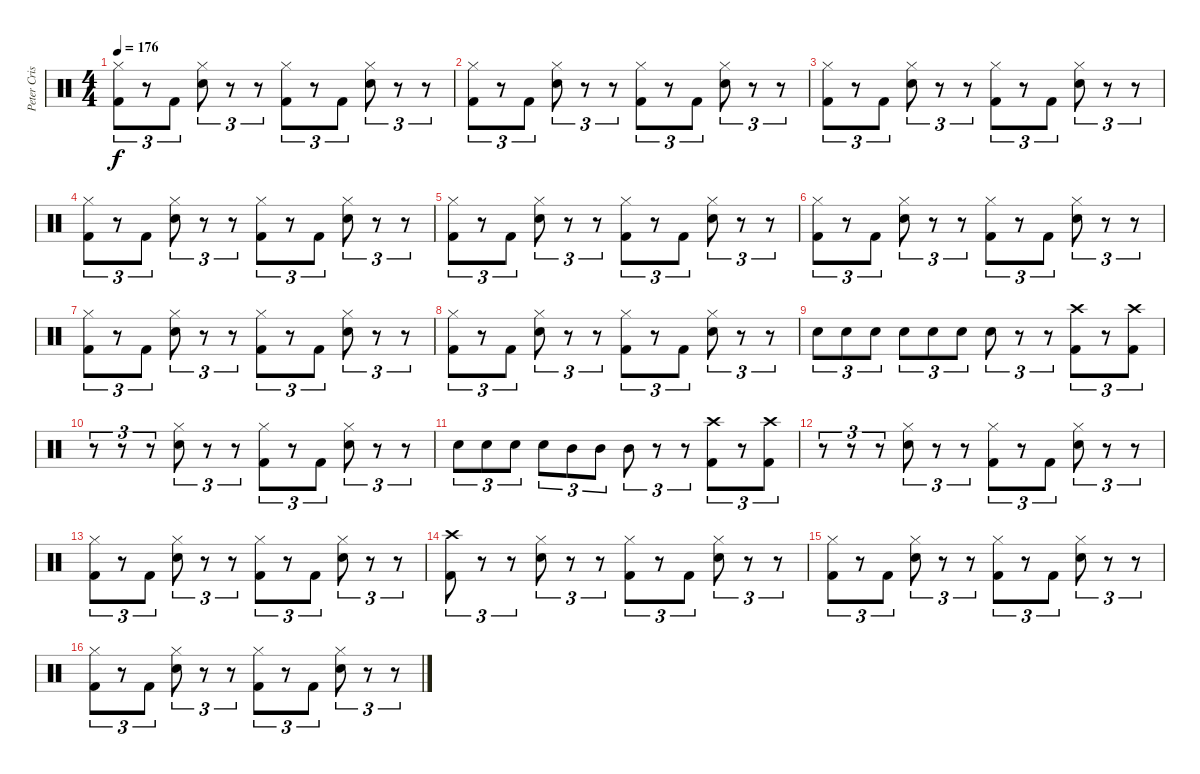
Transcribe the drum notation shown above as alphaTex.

\track ("Peter Criss" "Peter Cris") {instrument percussion}
\staff {score}
\articulation defaults
\ts (4 4)
\tempo 176
\clef neutral
\ks c
("Hi-Hat (closed)" "Kick (hit) 2").8{tu (3 2) dy f} r.8{tu (3 2)} "Kick (hit) 2".8{tu (3 2)} ("Hi-Hat (closed)" "Electric Snare (hit)").8{tu (3 2)} r.8{tu (3 2)} r.8{tu (3 2)} ("Hi-Hat (closed)" "Kick (hit) 2").8{tu (3 2)} r.8{tu (3 2)} "Kick (hit) 2".8{tu (3 2)} ("Hi-Hat (closed)" "Electric Snare (hit)").8{tu (3 2)} r.8{tu (3 2)} r.8{tu (3 2)} |
("Hi-Hat (closed)" "Kick (hit) 2").8{tu (3 2)} r.8{tu (3 2)} "Kick (hit) 2".8{tu (3 2)} ("Hi-Hat (closed)" "Electric Snare (hit)").8{tu (3 2)} r.8{tu (3 2)} r.8{tu (3 2)} ("Hi-Hat (closed)" "Kick (hit) 2").8{tu (3 2)} r.8{tu (3 2)} "Kick (hit) 2".8{tu (3 2)} ("Hi-Hat (closed)" "Electric Snare (hit)").8{tu (3 2)} r.8{tu (3 2)} r.8{tu (3 2)} |
("Hi-Hat (closed)" "Kick (hit) 2").8{tu (3 2)} r.8{tu (3 2)} "Kick (hit) 2".8{tu (3 2)} ("Hi-Hat (closed)" "Electric Snare (hit)").8{tu (3 2)} r.8{tu (3 2)} r.8{tu (3 2)} ("Hi-Hat (closed)" "Kick (hit) 2").8{tu (3 2)} r.8{tu (3 2)} "Kick (hit) 2".8{tu (3 2)} ("Hi-Hat (closed)" "Electric Snare (hit)").8{tu (3 2)} r.8{tu (3 2)} r.8{tu (3 2)} |
("Hi-Hat (closed)" "Kick (hit) 2").8{tu (3 2)} r.8{tu (3 2)} "Kick (hit) 2".8{tu (3 2)} ("Hi-Hat (closed)" "Electric Snare (hit)").8{tu (3 2)} r.8{tu (3 2)} r.8{tu (3 2)} ("Hi-Hat (closed)" "Kick (hit) 2").8{tu (3 2)} r.8{tu (3 2)} "Kick (hit) 2".8{tu (3 2)} ("Hi-Hat (closed)" "Electric Snare (hit)").8{tu (3 2)} r.8{tu (3 2)} r.8{tu (3 2)} |
("Hi-Hat (closed)" "Kick (hit) 2").8{tu (3 2)} r.8{tu (3 2)} "Kick (hit) 2".8{tu (3 2)} ("Hi-Hat (closed)" "Electric Snare (hit)").8{tu (3 2)} r.8{tu (3 2)} r.8{tu (3 2)} ("Hi-Hat (closed)" "Kick (hit) 2").8{tu (3 2)} r.8{tu (3 2)} "Kick (hit) 2".8{tu (3 2)} ("Hi-Hat (closed)" "Electric Snare (hit)").8{tu (3 2)} r.8{tu (3 2)} r.8{tu (3 2)} |
("Hi-Hat (closed)" "Kick (hit) 2").8{tu (3 2)} r.8{tu (3 2)} "Kick (hit) 2".8{tu (3 2)} ("Hi-Hat (closed)" "Electric Snare (hit)").8{tu (3 2)} r.8{tu (3 2)} r.8{tu (3 2)} ("Hi-Hat (closed)" "Kick (hit) 2").8{tu (3 2)} r.8{tu (3 2)} "Kick (hit) 2".8{tu (3 2)} ("Hi-Hat (closed)" "Electric Snare (hit)").8{tu (3 2)} r.8{tu (3 2)} r.8{tu (3 2)} |
("Hi-Hat (closed)" "Kick (hit) 2").8{tu (3 2)} r.8{tu (3 2)} "Kick (hit) 2".8{tu (3 2)} ("Hi-Hat (closed)" "Electric Snare (hit)").8{tu (3 2)} r.8{tu (3 2)} r.8{tu (3 2)} ("Hi-Hat (closed)" "Kick (hit) 2").8{tu (3 2)} r.8{tu (3 2)} "Kick (hit) 2".8{tu (3 2)} ("Hi-Hat (closed)" "Electric Snare (hit)").8{tu (3 2)} r.8{tu (3 2)} r.8{tu (3 2)} |
("Hi-Hat (closed)" "Kick (hit) 2").8{tu (3 2)} r.8{tu (3 2)} "Kick (hit) 2".8{tu (3 2)} ("Hi-Hat (closed)" "Electric Snare (hit)").8{tu (3 2)} r.8{tu (3 2)} r.8{tu (3 2)} ("Hi-Hat (closed)" "Kick (hit) 2").8{tu (3 2)} r.8{tu (3 2)} "Kick (hit) 2".8{tu (3 2)} ("Hi-Hat (closed)" "Electric Snare (hit)").8{tu (3 2)} r.8{tu (3 2)} r.8{tu (3 2)} |
"Electric Snare (hit)".8{tu (3 2)} "Electric Snare (hit)".8{tu (3 2)} "Electric Snare (hit)".8{tu (3 2)} "Electric Snare (hit)".8{tu (3 2)} "Electric Snare (hit)".8{tu (3 2)} "Electric Snare (hit)".8{tu (3 2)} "Electric Snare (hit)".8{tu (3 2)} r.8{tu (3 2)} r.8{tu (3 2)} ("Crash high (hit)" "Kick (hit) 2").8{tu (3 2)} r.8{tu (3 2)} ("Crash high (hit)" "Kick (hit) 2").8{tu (3 2)} |
r.8{tu (3 2)} r.8{tu (3 2)} r.8{tu (3 2)} ("Hi-Hat (closed)" "Electric Snare (hit)").8{tu (3 2)} r.8{tu (3 2)} r.8{tu (3 2)} ("Hi-Hat (closed)" "Kick (hit) 2").8{tu (3 2)} r.8{tu (3 2)} "Kick (hit) 2".8{tu (3 2)} ("Hi-Hat (closed)" "Electric Snare (hit)").8{tu (3 2)} r.8{tu (3 2)} r.8{tu (3 2)} |
"Electric Snare (hit)".8{tu (3 2)} "Electric Snare (hit)".8{tu (3 2)} "Electric Snare (hit)".8{tu (3 2)} "Electric Snare (hit)".8{tu (3 2)} "Mid Tom (hit)".8{tu (3 2)} "Mid Tom (hit)".8{tu (3 2)} "Mid Tom (hit)".8{tu (3 2)} r.8{tu (3 2)} r.8{tu (3 2)} ("Crash high (hit)" "Kick (hit) 2").8{tu (3 2)} r.8{tu (3 2)} ("Crash high (hit)" "Kick (hit) 2").8{tu (3 2)} |
r.8{tu (3 2)} r.8{tu (3 2)} r.8{tu (3 2)} ("Hi-Hat (closed)" "Electric Snare (hit)").8{tu (3 2)} r.8{tu (3 2)} r.8{tu (3 2)} ("Hi-Hat (closed)" "Kick (hit) 2").8{tu (3 2)} r.8{tu (3 2)} "Kick (hit) 2".8{tu (3 2)} ("Hi-Hat (closed)" "Electric Snare (hit)").8{tu (3 2)} r.8{tu (3 2)} r.8{tu (3 2)} |
("Hi-Hat (closed)" "Kick (hit) 2").8{tu (3 2)} r.8{tu (3 2)} "Kick (hit) 2".8{tu (3 2)} ("Hi-Hat (closed)" "Electric Snare (hit)").8{tu (3 2)} r.8{tu (3 2)} r.8{tu (3 2)} ("Hi-Hat (closed)" "Kick (hit) 2").8{tu (3 2)} r.8{tu (3 2)} "Kick (hit) 2".8{tu (3 2)} ("Hi-Hat (closed)" "Electric Snare (hit)").8{tu (3 2)} r.8{tu (3 2)} r.8{tu (3 2)} |
("Crash high (hit)" "Kick (hit) 2").8{tu (3 2)} r.8{tu (3 2)} r.8{tu (3 2)} ("Hi-Hat (closed)" "Electric Snare (hit)").8{tu (3 2)} r.8{tu (3 2)} r.8{tu (3 2)} ("Hi-Hat (closed)" "Kick (hit) 2").8{tu (3 2)} r.8{tu (3 2)} "Kick (hit) 2".8{tu (3 2)} ("Hi-Hat (closed)" "Electric Snare (hit)").8{tu (3 2)} r.8{tu (3 2)} r.8{tu (3 2)} |
("Hi-Hat (closed)" "Kick (hit) 2").8{tu (3 2)} r.8{tu (3 2)} "Kick (hit) 2".8{tu (3 2)} ("Hi-Hat (closed)" "Electric Snare (hit)").8{tu (3 2)} r.8{tu (3 2)} r.8{tu (3 2)} ("Hi-Hat (closed)" "Kick (hit) 2").8{tu (3 2)} r.8{tu (3 2)} "Kick (hit) 2".8{tu (3 2)} ("Hi-Hat (closed)" "Electric Snare (hit)").8{tu (3 2)} r.8{tu (3 2)} r.8{tu (3 2)} |
("Hi-Hat (closed)" "Kick (hit) 2").8{tu (3 2)} r.8{tu (3 2)} "Kick (hit) 2".8{tu (3 2)} ("Hi-Hat (closed)" "Electric Snare (hit)").8{tu (3 2)} r.8{tu (3 2)} r.8{tu (3 2)} ("Hi-Hat (closed)" "Kick (hit) 2").8{tu (3 2)} r.8{tu (3 2)} "Kick (hit) 2".8{tu (3 2)} ("Hi-Hat (closed)" "Electric Snare (hit)").8{tu (3 2)} r.8{tu (3 2)} r.8{tu (3 2)}
